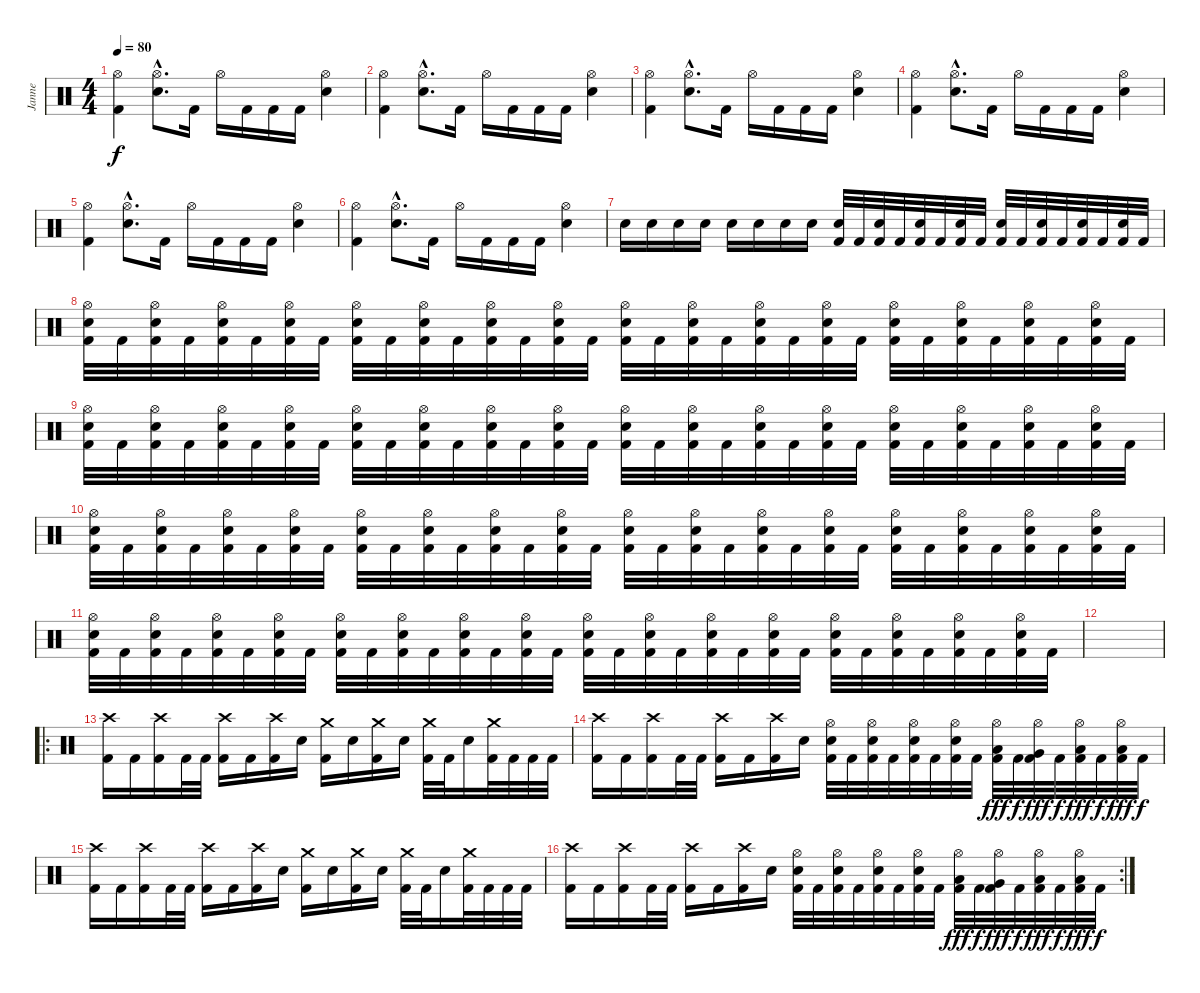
\track ("Janne" "Janne") {instrument percussion}
\staff {score}
\articulation defaults
\ts (4 4)
\tempo 80
\clef neutral
\ks c
("Hi-Hat (open)" "Kick (hit) 2").4{dy f} ("Hi-Hat (open)"{hac} "Electric Snare (hit)"{hac}).8{d} "Kick (hit) 2".16 "Hi-Hat (open)".16 "Kick (hit) 2".16 "Kick (hit) 2".16 "Kick (hit) 2".16 ("Hi-Hat (open)" "Electric Snare (hit)").4 |
("Hi-Hat (open)" "Kick (hit) 2").4 ("Hi-Hat (open)"{hac} "Electric Snare (hit)"{hac}).8{d} "Kick (hit) 2".16 "Hi-Hat (open)".16 "Kick (hit) 2".16 "Kick (hit) 2".16 "Kick (hit) 2".16 ("Hi-Hat (open)" "Electric Snare (hit)").4 |
("Hi-Hat (open)" "Kick (hit) 2").4 ("Hi-Hat (open)"{hac} "Electric Snare (hit)"{hac}).8{d} "Kick (hit) 2".16 "Hi-Hat (open)".16 "Kick (hit) 2".16 "Kick (hit) 2".16 "Kick (hit) 2".16 ("Hi-Hat (open)" "Electric Snare (hit)").4 |
("Hi-Hat (open)" "Kick (hit) 2").4 ("Hi-Hat (open)"{hac} "Electric Snare (hit)"{hac}).8{d} "Kick (hit) 2".16 "Hi-Hat (open)".16 "Kick (hit) 2".16 "Kick (hit) 2".16 "Kick (hit) 2".16 ("Hi-Hat (open)" "Electric Snare (hit)").4 |
("Hi-Hat (open)" "Kick (hit) 2").4 ("Hi-Hat (open)"{hac} "Electric Snare (hit)"{hac}).8{d} "Kick (hit) 2".16 "Hi-Hat (open)".16 "Kick (hit) 2".16 "Kick (hit) 2".16 "Kick (hit) 2".16 ("Hi-Hat (open)" "Electric Snare (hit)").4 |
("Hi-Hat (open)" "Kick (hit) 2").4 ("Hi-Hat (open)"{hac} "Electric Snare (hit)"{hac}).8{d} "Kick (hit) 2".16 "Hi-Hat (open)".16 "Kick (hit) 2".16 "Kick (hit) 2".16 "Kick (hit) 2".16 ("Hi-Hat (open)" "Electric Snare (hit)").4 |
"Electric Snare (hit)".16 "Electric Snare (hit)".16 "Electric Snare (hit)".16 "Electric Snare (hit)".16 "Electric Snare (hit)".16 "Electric Snare (hit)".16 "Electric Snare (hit)".16 "Electric Snare (hit)".16 ("Electric Snare (hit)" "Kick (hit) 2").32 "Kick (hit) 2".32 ("Electric Snare (hit)" "Kick (hit) 2").32 "Kick (hit) 2".32 ("Electric Snare (hit)" "Kick (hit) 2").32 "Kick (hit) 2".32 ("Electric Snare (hit)" "Kick (hit) 2").32 "Kick (hit) 2".32 ("Electric Snare (hit)" "Kick (hit) 2").32 "Kick (hit) 2".32 ("Electric Snare (hit)" "Kick (hit) 2").32 "Kick (hit) 2".32 ("Electric Snare (hit)" "Kick (hit) 2").32 "Kick (hit) 2".32 ("Electric Snare (hit)" "Kick (hit) 2").32 "Kick (hit) 2".32 |
("Hi-Hat (open)" "Electric Snare (hit)" "Kick (hit) 2").32 "Kick (hit) 2".32 ("Hi-Hat (open)" "Electric Snare (hit)" "Kick (hit) 2").32 "Kick (hit) 2".32 ("Hi-Hat (open)" "Electric Snare (hit)" "Kick (hit) 2").32 "Kick (hit) 2".32 ("Hi-Hat (open)" "Electric Snare (hit)" "Kick (hit) 2").32 "Kick (hit) 2".32 ("Hi-Hat (open)" "Electric Snare (hit)" "Kick (hit) 2").32 "Kick (hit) 2".32 ("Hi-Hat (open)" "Electric Snare (hit)" "Kick (hit) 2").32 "Kick (hit) 2".32 ("Hi-Hat (open)" "Electric Snare (hit)" "Kick (hit) 2").32 "Kick (hit) 2".32 ("Hi-Hat (open)" "Electric Snare (hit)" "Kick (hit) 2").32 "Kick (hit) 2".32 ("Hi-Hat (open)" "Electric Snare (hit)" "Kick (hit) 2").32 "Kick (hit) 2".32 ("Hi-Hat (open)" "Electric Snare (hit)" "Kick (hit) 2").32 "Kick (hit) 2".32 ("Hi-Hat (open)" "Electric Snare (hit)" "Kick (hit) 2").32 "Kick (hit) 2".32 ("Hi-Hat (open)" "Electric Snare (hit)" "Kick (hit) 2").32 "Kick (hit) 2".32 ("Hi-Hat (open)" "Electric Snare (hit)" "Kick (hit) 2").32 "Kick (hit) 2".32 ("Hi-Hat (open)" "Electric Snare (hit)" "Kick (hit) 2").32 "Kick (hit) 2".32 ("Hi-Hat (open)" "Electric Snare (hit)" "Kick (hit) 2").32 "Kick (hit) 2".32 ("Hi-Hat (open)" "Electric Snare (hit)" "Kick (hit) 2").32 "Kick (hit) 2".32 |
("Hi-Hat (open)" "Electric Snare (hit)" "Kick (hit) 2").32 "Kick (hit) 2".32 ("Hi-Hat (open)" "Electric Snare (hit)" "Kick (hit) 2").32 "Kick (hit) 2".32 ("Hi-Hat (open)" "Electric Snare (hit)" "Kick (hit) 2").32 "Kick (hit) 2".32 ("Hi-Hat (open)" "Electric Snare (hit)" "Kick (hit) 2").32 "Kick (hit) 2".32 ("Hi-Hat (open)" "Electric Snare (hit)" "Kick (hit) 2").32 "Kick (hit) 2".32 ("Hi-Hat (open)" "Electric Snare (hit)" "Kick (hit) 2").32 "Kick (hit) 2".32 ("Hi-Hat (open)" "Electric Snare (hit)" "Kick (hit) 2").32 "Kick (hit) 2".32 ("Hi-Hat (open)" "Electric Snare (hit)" "Kick (hit) 2").32 "Kick (hit) 2".32 ("Hi-Hat (open)" "Electric Snare (hit)" "Kick (hit) 2").32 "Kick (hit) 2".32 ("Hi-Hat (open)" "Electric Snare (hit)" "Kick (hit) 2").32 "Kick (hit) 2".32 ("Hi-Hat (open)" "Electric Snare (hit)" "Kick (hit) 2").32 "Kick (hit) 2".32 ("Hi-Hat (open)" "Electric Snare (hit)" "Kick (hit) 2").32 "Kick (hit) 2".32 ("Hi-Hat (open)" "Electric Snare (hit)" "Kick (hit) 2").32 "Kick (hit) 2".32 ("Hi-Hat (open)" "Electric Snare (hit)" "Kick (hit) 2").32 "Kick (hit) 2".32 ("Hi-Hat (open)" "Electric Snare (hit)" "Kick (hit) 2").32 "Kick (hit) 2".32 ("Hi-Hat (open)" "Electric Snare (hit)" "Kick (hit) 2").32 "Kick (hit) 2".32 |
("Hi-Hat (open)" "Electric Snare (hit)" "Kick (hit) 2").32 "Kick (hit) 2".32 ("Hi-Hat (open)" "Electric Snare (hit)" "Kick (hit) 2").32 "Kick (hit) 2".32 ("Hi-Hat (open)" "Electric Snare (hit)" "Kick (hit) 2").32 "Kick (hit) 2".32 ("Hi-Hat (open)" "Electric Snare (hit)" "Kick (hit) 2").32 "Kick (hit) 2".32 ("Hi-Hat (open)" "Electric Snare (hit)" "Kick (hit) 2").32 "Kick (hit) 2".32 ("Hi-Hat (open)" "Electric Snare (hit)" "Kick (hit) 2").32 "Kick (hit) 2".32 ("Hi-Hat (open)" "Electric Snare (hit)" "Kick (hit) 2").32 "Kick (hit) 2".32 ("Hi-Hat (open)" "Electric Snare (hit)" "Kick (hit) 2").32 "Kick (hit) 2".32 ("Hi-Hat (open)" "Electric Snare (hit)" "Kick (hit) 2").32 "Kick (hit) 2".32 ("Hi-Hat (open)" "Electric Snare (hit)" "Kick (hit) 2").32 "Kick (hit) 2".32 ("Hi-Hat (open)" "Electric Snare (hit)" "Kick (hit) 2").32 "Kick (hit) 2".32 ("Hi-Hat (open)" "Electric Snare (hit)" "Kick (hit) 2").32 "Kick (hit) 2".32 ("Hi-Hat (open)" "Electric Snare (hit)" "Kick (hit) 2").32 "Kick (hit) 2".32 ("Hi-Hat (open)" "Electric Snare (hit)" "Kick (hit) 2").32 "Kick (hit) 2".32 ("Hi-Hat (open)" "Electric Snare (hit)" "Kick (hit) 2").32 "Kick (hit) 2".32 ("Hi-Hat (open)" "Electric Snare (hit)" "Kick (hit) 2").32 "Kick (hit) 2".32 |
("Hi-Hat (open)" "Electric Snare (hit)" "Kick (hit) 2").32 "Kick (hit) 2".32 ("Hi-Hat (open)" "Electric Snare (hit)" "Kick (hit) 2").32 "Kick (hit) 2".32 ("Hi-Hat (open)" "Electric Snare (hit)" "Kick (hit) 2").32 "Kick (hit) 2".32 ("Hi-Hat (open)" "Electric Snare (hit)" "Kick (hit) 2").32 "Kick (hit) 2".32 ("Hi-Hat (open)" "Electric Snare (hit)" "Kick (hit) 2").32 "Kick (hit) 2".32 ("Hi-Hat (open)" "Electric Snare (hit)" "Kick (hit) 2").32 "Kick (hit) 2".32 ("Hi-Hat (open)" "Electric Snare (hit)" "Kick (hit) 2").32 "Kick (hit) 2".32 ("Hi-Hat (open)" "Electric Snare (hit)" "Kick (hit) 2").32 "Kick (hit) 2".32 ("Hi-Hat (open)" "Electric Snare (hit)" "Kick (hit) 2").32 "Kick (hit) 2".32 ("Hi-Hat (open)" "Electric Snare (hit)" "Kick (hit) 2").32 "Kick (hit) 2".32 ("Hi-Hat (open)" "Electric Snare (hit)" "Kick (hit) 2").32 "Kick (hit) 2".32 ("Hi-Hat (open)" "Electric Snare (hit)" "Kick (hit) 2").32 "Kick (hit) 2".32 ("Hi-Hat (open)" "Electric Snare (hit)" "Kick (hit) 2").32 "Kick (hit) 2".32 ("Hi-Hat (open)" "Electric Snare (hit)" "Kick (hit) 2").32 "Kick (hit) 2".32 ("Hi-Hat (open)" "Electric Snare (hit)" "Kick (hit) 2").32 "Kick (hit) 2".32 ("Hi-Hat (open)" "Electric Snare (hit)" "Kick (hit) 2").32 "Kick (hit) 2".32 |
|
\ro
("Crash high (hit)" "Kick (hit) 2").16 "Kick (hit) 2".16 ("Crash high (hit)" "Kick (hit) 2").16 "Kick (hit) 2".32 "Kick (hit) 2".32 ("Crash high (hit)" "Kick (hit) 2").16 "Kick (hit) 2".16 ("Crash high (hit)" "Kick (hit) 2").16 "Electric Snare (hit)".16 ("Crash medium (hit)" "Kick (hit) 2").16 "Electric Snare (hit)".16 ("Crash medium (hit)" "Kick (hit) 2").16 "Electric Snare (hit)".16 ("Crash medium (hit)" "Kick (hit) 2").32 "Kick (hit) 2".32 "Electric Snare (hit)".16 ("Crash medium (hit)" "Kick (hit) 2").32 "Kick (hit) 2".32 "Kick (hit) 2".32 "Kick (hit) 2".32 |
("Crash high (hit)" "Kick (hit) 2").16 "Kick (hit) 2".16 ("Crash high (hit)" "Kick (hit) 2").16 "Kick (hit) 2".32 "Kick (hit) 2".32 ("Crash high (hit)" "Kick (hit) 2").16 "Kick (hit) 2".16 ("Crash high (hit)" "Kick (hit) 2").16 "Electric Snare (hit)".16 ("Hi-Hat (open)" "Electric Snare (hit)" "Kick (hit) 2").32 "Kick (hit) 2".32 ("Hi-Hat (open)" "Electric Snare (hit)" "Kick (hit) 2").32 "Kick (hit) 2".32 ("Hi-Hat (open)" "Electric Snare (hit)" "Kick (hit) 2").32 "Kick (hit) 2".32 ("Hi-Hat (open)" "Electric Snare (hit)" "Kick (hit) 2").32 "Kick (hit) 2".32 ("Hi-Hat (open)" "Low Tom (hit)" "Kick (hit) 2").32{dy fff} "Kick (hit) 2".32{dy f} ("Hi-Hat (open)" "Very Low Tom (hit)" "Kick (hit) 2").32{dy fff} "Kick (hit) 2".32{dy f} ("Hi-Hat (open)" "Low Floor Tom (hit)" "Kick (hit) 2").32{dy fff} "Kick (hit) 2".32{dy f} ("Hi-Hat (open)" "Low Floor Tom (hit)" "Kick (hit) 2").32{dy fff} "Kick (hit) 2".32{dy f} |
("Crash high (hit)" "Kick (hit) 2").16 "Kick (hit) 2".16 ("Crash high (hit)" "Kick (hit) 2").16 "Kick (hit) 2".32 "Kick (hit) 2".32 ("Crash high (hit)" "Kick (hit) 2").16 "Kick (hit) 2".16 ("Crash high (hit)" "Kick (hit) 2").16 "Electric Snare (hit)".16 ("Crash medium (hit)" "Kick (hit) 2").16 "Electric Snare (hit)".16 ("Crash medium (hit)" "Kick (hit) 2").16 "Electric Snare (hit)".16 ("Crash medium (hit)" "Kick (hit) 2").32 "Kick (hit) 2".32 "Electric Snare (hit)".16 ("Crash medium (hit)" "Kick (hit) 2").32 "Kick (hit) 2".32 "Kick (hit) 2".32 "Kick (hit) 2".32 |
\rc 2
("Crash high (hit)" "Kick (hit) 2").16 "Kick (hit) 2".16 ("Crash high (hit)" "Kick (hit) 2").16 "Kick (hit) 2".32 "Kick (hit) 2".32 ("Crash high (hit)" "Kick (hit) 2").16 "Kick (hit) 2".16 ("Crash high (hit)" "Kick (hit) 2").16 "Electric Snare (hit)".16 ("Hi-Hat (open)" "Electric Snare (hit)" "Kick (hit) 2").32 "Kick (hit) 2".32 ("Hi-Hat (open)" "Electric Snare (hit)" "Kick (hit) 2").32 "Kick (hit) 2".32 ("Hi-Hat (open)" "Electric Snare (hit)" "Kick (hit) 2").32 "Kick (hit) 2".32 ("Hi-Hat (open)" "Electric Snare (hit)" "Kick (hit) 2").32 "Kick (hit) 2".32 ("Hi-Hat (open)" "Low Tom (hit)" "Kick (hit) 2").32{dy fff} "Kick (hit) 2".32{dy f} ("Hi-Hat (open)" "Very Low Tom (hit)" "Kick (hit) 2").32{dy fff} "Kick (hit) 2".32{dy f} ("Hi-Hat (open)" "Low Floor Tom (hit)" "Kick (hit) 2").32{dy fff} "Kick (hit) 2".32{dy f} ("Hi-Hat (open)" "Low Floor Tom (hit)" "Kick (hit) 2").32{dy fff} "Kick (hit) 2".32{dy f}
